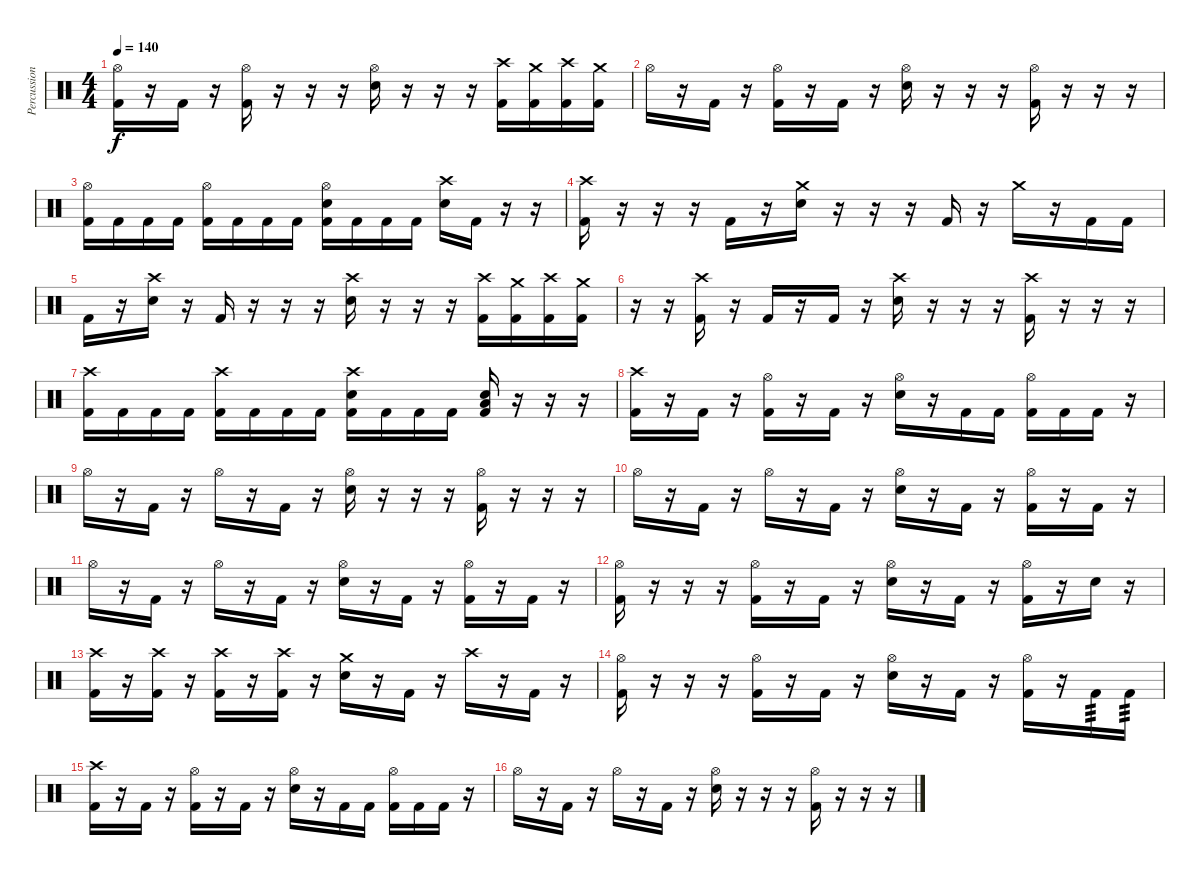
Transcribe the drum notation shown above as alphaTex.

\track ("Percussion" "Percussion") {instrument percussion}
\staff {score}
\articulation defaults
\ts (4 4)
\tempo 140
\clef neutral
\ks c
("Hi-Hat (open)" "Kick (hit) 2").16{dy f} r.16 "Kick (hit) 2".16 r.16 ("Hi-Hat (open)" "Kick (hit) 2").16 r.16 r.16 r.16 ("Hi-Hat (open)" "Snare (hit) 2").16 r.16 r.16 r.16 ("Crash high (hit)" "Kick (hit) 2").16 ("Crash medium (hit)" "Kick (hit) 2").16 ("Crash high (hit)" "Kick (hit) 2").16 ("Crash medium (hit)" "Kick (hit) 2").16 |
"Hi-Hat (open)".16 r.16 "Kick (hit) 2".16 r.16 ("Hi-Hat (open)" "Kick (hit) 2").16 r.16 "Kick (hit) 2".16 r.16 ("Hi-Hat (open)" "Snare (hit) 2").16 r.16 r.16 r.16 ("Hi-Hat (open)" "Kick (hit) 2").16 r.16 r.16 r.16 |
("Hi-Hat (open)" "Kick (hit) 2").16 "Kick (hit) 2".16 "Kick (hit) 2".16 "Kick (hit) 2".16 ("Hi-Hat (open)" "Kick (hit) 2").16 "Kick (hit) 2".16 "Kick (hit) 2".16 "Kick (hit) 2".16 ("Hi-Hat (open)" "Snare (hit) 2" "Kick (hit) 2").16 "Kick (hit) 2".16 "Kick (hit) 2".16 "Kick (hit) 2".16 ("Crash high (hit)" "Snare (hit) 2").16 "Kick (hit) 2".16 r.16 r.16 |
("Crash high (hit)" "Kick (hit) 2").16 r.16 r.16 r.16 "Kick (hit) 2".16 r.16 ("Crash medium (hit)" "Snare (hit) 2").16 r.16 r.16 r.16 "Kick (hit) 2".16 r.16 "Crash medium (hit)".16 r.16 "Kick (hit) 2".16 "Kick (hit) 2".16 |
"Kick (hit) 2".16 r.16 ("Crash high (hit)" "Snare (hit) 2").16 r.16 "Kick (hit) 2".16 r.16 r.16 r.16 ("Crash high (hit)" "Snare (hit) 2").16 r.16 r.16 r.16 ("Crash high (hit)" "Kick (hit) 2").16 ("Crash medium (hit)" "Kick (hit) 2").16 ("Crash high (hit)" "Kick (hit) 2").16 ("Crash medium (hit)" "Kick (hit) 2").16 |
r.16 r.16 ("Crash high (hit)" "Kick (hit) 2").16 r.16 "Kick (hit) 2".16 r.16 "Kick (hit) 2".16 r.16 ("Crash high (hit)" "Snare (hit) 2").16 r.16 r.16 r.16 ("Crash high (hit)" "Kick (hit) 2").16 r.16 r.16 r.16 |
("Crash high (hit)" "Kick (hit) 2").16 "Kick (hit) 2".16 "Kick (hit) 2".16 "Kick (hit) 2".16 ("Crash high (hit)" "Kick (hit) 2").16 "Kick (hit) 2".16 "Kick (hit) 2".16 "Kick (hit) 2".16 ("Crash high (hit)" "Snare (hit) 2" "Kick (hit) 2").16 "Kick (hit) 2".16 "Kick (hit) 2".16 "Kick (hit) 2".16 ("Low Floor Tom (hit)" "Snare (hit) 2" "Kick (hit) 2").16 r.16 r.16 r.16 |
("Crash high (hit)" "Kick (hit) 2").16 r.16 "Kick (hit) 2".16 r.16 ("Hi-Hat (open)" "Kick (hit) 2").16 r.16 "Kick (hit) 2".16 r.16 ("Hi-Hat (open)" "Snare (hit) 2").16 r.16 "Kick (hit) 2".16 "Kick (hit) 2".16 ("Hi-Hat (open)" "Kick (hit) 2").16 "Kick (hit) 2".16 "Kick (hit) 2".16 r.16 |
"Hi-Hat (open)".16 r.16 "Kick (hit) 2".16 r.16 "Hi-Hat (open)".16 r.16 "Kick (hit) 2".16 r.16 ("Hi-Hat (open)" "Snare (hit) 2").16 r.16 r.16 r.16 ("Hi-Hat (open)" "Kick (hit) 2").16 r.16 r.16 r.16 |
"Hi-Hat (open)".16 r.16 "Kick (hit) 2".16 r.16 "Hi-Hat (open)".16 r.16 "Kick (hit) 2".16 r.16 ("Hi-Hat (open)" "Snare (hit) 2").16 r.16 "Kick (hit) 2".16 r.16 ("Hi-Hat (open)" "Kick (hit) 2").16 r.16 "Kick (hit) 2".16 r.16 |
"Hi-Hat (open)".16 r.16 "Kick (hit) 2".16 r.16 "Hi-Hat (open)".16 r.16 "Kick (hit) 2".16 r.16 ("Hi-Hat (open)" "Snare (hit) 2").16 r.16 "Kick (hit) 2".16 r.16 ("Hi-Hat (open)" "Kick (hit) 2").16 r.16 "Kick (hit) 2".16 r.16 |
("Hi-Hat (open)" "Kick (hit) 2").16 r.16 r.16 r.16 ("Hi-Hat (open)" "Kick (hit) 2").16 r.16 "Kick (hit) 2".16 r.16 ("Hi-Hat (open)" "Snare (hit) 2").16 r.16 "Kick (hit) 2".16 r.16 ("Hi-Hat (open)" "Kick (hit) 2").16 r.16 "Snare (hit) 2".16 r.16 |
("Crash high (hit)" "Kick (hit) 2").16 r.16 ("Crash high (hit)" "Kick (hit) 2").16 r.16 ("Crash high (hit)" "Kick (hit) 2").16 r.16 ("Crash high (hit)" "Kick (hit) 2").16 r.16 ("Crash medium (hit)" "Snare (hit) 2").16 r.16 "Kick (hit) 2".16 r.16 "Crash high (hit)".16 r.16 "Kick (hit) 2".16 r.16 |
("Hi-Hat (open)" "Kick (hit) 2").16 r.16 r.16 r.16 ("Hi-Hat (open)" "Kick (hit) 2").16 r.16 "Kick (hit) 2".16 r.16 ("Hi-Hat (open)" "Snare (hit) 2").16 r.16 "Kick (hit) 2".16 r.16 ("Hi-Hat (open)" "Kick (hit) 2").16 r.16 "Kick (hit) 2".16{tp 3} "Kick (hit) 2".16{tp 3} |
("Crash high (hit)" "Kick (hit) 2").16 r.16 "Kick (hit) 2".16 r.16 ("Hi-Hat (open)" "Kick (hit) 2").16 r.16 "Kick (hit) 2".16 r.16 ("Hi-Hat (open)" "Snare (hit) 2").16 r.16 "Kick (hit) 2".16 "Kick (hit) 2".16 ("Hi-Hat (open)" "Kick (hit) 2").16 "Kick (hit) 2".16 "Kick (hit) 2".16 r.16 |
"Hi-Hat (open)".16 r.16 "Kick (hit) 2".16 r.16 "Hi-Hat (open)".16 r.16 "Kick (hit) 2".16 r.16 ("Hi-Hat (open)" "Snare (hit) 2").16 r.16 r.16 r.16 ("Hi-Hat (open)" "Kick (hit) 2").16 r.16 r.16 r.16
